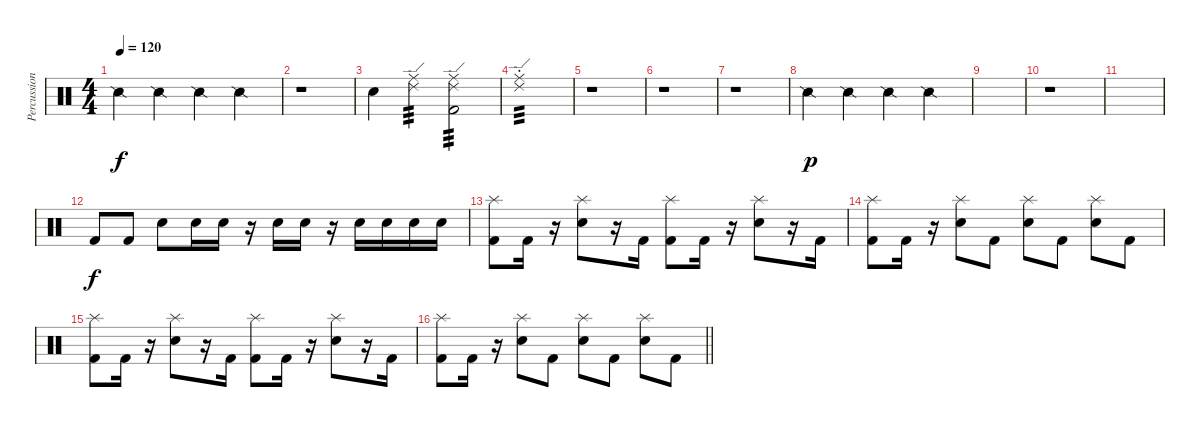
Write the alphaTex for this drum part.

\track ("Percussions" "Percussion") {instrument percussion}
\staff {score}
\articulation defaults
\ts (4 4)
\tempo 120
\clef neutral
\ks c "Snare (side stick) 2".4{dy f} "Snare (side stick) 2".4 "Snare (side stick) 2".4 "Snare (side stick) 2".4
|
r.1 |
"Electric Snare (hit)".4 ("Ride (middle)" "Ride (edge) 2").4{tp 3} ("Ride (middle)" "Ride (edge) 2" "Kick (hit) 2").2{tp 3} |
("Ride (middle)" "Ride (edge) 2"{st}).1{tp 3} |
r.1 |
r.1 |
r.1 |
"Snare (side stick) 2".4{dy p} "Snare (side stick) 2".4 "Snare (side stick) 2".4 "Snare (side stick) 2".4 |
|
r.1 |
|
"Kick (hit) 2".8{dy f} "Kick (hit) 2".8 "Electric Snare (hit)".8 "Electric Snare (hit)".16 "Electric Snare (hit)".16 r.16 "Electric Snare (hit)".16 "Electric Snare (hit)".16 r.16 "Electric Snare (hit)".16 "Electric Snare (hit)".16 "Electric Snare (hit)".16 "Electric Snare (hit)".16 |
("Splash (hit)" "Kick (hit) 2").8 "Kick (hit) 2".16 r.16 ("Splash (hit)" "Electric Snare (hit)").8 r.16 "Kick (hit) 2".16 ("Splash (hit)" "Kick (hit) 2").8 "Kick (hit) 2".16 r.16 ("Splash (hit)" "Electric Snare (hit)").8 r.16 "Kick (hit) 2".16 |
("Splash (hit)" "Kick (hit) 2").8 "Kick (hit) 2".16 r.16 ("Splash (hit)" "Electric Snare (hit)").8 "Kick (hit) 2".8 ("Splash (hit)" "Electric Snare (hit)").8 "Kick (hit) 2".8 ("Splash (hit)" "Electric Snare (hit)").8 "Kick (hit) 2".8 |
("Splash (hit)" "Kick (hit) 2").8 "Kick (hit) 2".16 r.16 ("Splash (hit)" "Electric Snare (hit)").8 r.16 "Kick (hit) 2".16 ("Splash (hit)" "Kick (hit) 2").8 "Kick (hit) 2".16 r.16 ("Splash (hit)" "Electric Snare (hit)").8 r.16 "Kick (hit) 2".16 |
\barLineRight lightlight
("Splash (hit)" "Kick (hit) 2").8 "Kick (hit) 2".16 r.16 ("Splash (hit)" "Electric Snare (hit)").8 "Kick (hit) 2".8 ("Splash (hit)" "Electric Snare (hit)").8 "Kick (hit) 2".8 ("Splash (hit)" "Electric Snare (hit)").8 "Kick (hit) 2".8
